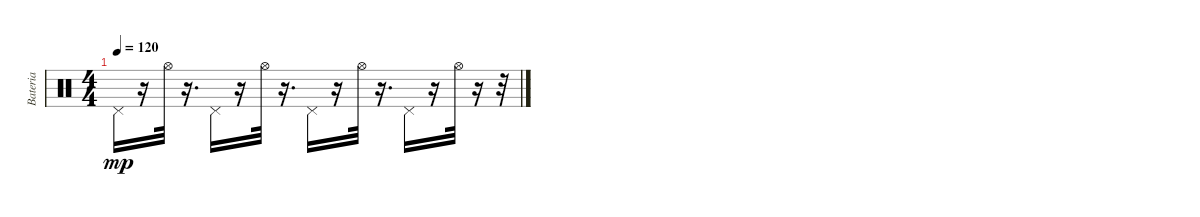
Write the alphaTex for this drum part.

\track ("Bateria" "Bateria") {instrument percussion}
\staff {score}
\articulation defaults
\ts (4 4)
\tempo 120
\clef neutral
\ks c "Pedal Hi-Hat (hit)".16{dy mp}
r.16 "Hi-Hat (open)".32 r.16{d} "Pedal Hi-Hat (hit)".16 r.16 "Hi-Hat (open)".32 r.16{d} "Pedal Hi-Hat (hit)".16 r.16 "Hi-Hat (open)".32 r.16{d} "Pedal Hi-Hat (hit)".16 r.16 "Hi-Hat (open)".32 r.16 r.32
